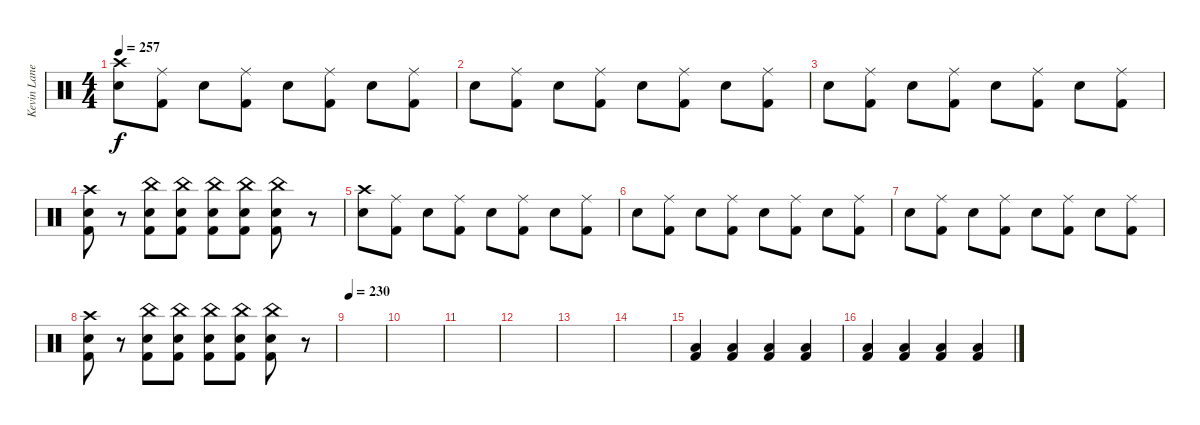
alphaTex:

\track ("Kevin Lane" "Kevin Lane") {instrument percussion}
\staff {score}
\articulation defaults
\ts (4 4)
\tempo 257
\clef neutral
\ks c
("Crash high (hit)" "Electric Snare (hit)").8{dy f} ("Ride (middle)" "Kick (hit) 2").8 "Electric Snare (hit)".8 ("Ride (middle)" "Kick (hit) 2").8 "Electric Snare (hit)".8 ("Ride (middle)" "Kick (hit) 2").8 "Electric Snare (hit)".8 ("Ride (middle)" "Kick (hit) 2").8 |
"Electric Snare (hit)".8 ("Ride (middle)" "Kick (hit) 2").8 "Electric Snare (hit)".8 ("Ride (middle)" "Kick (hit) 2").8 "Electric Snare (hit)".8 ("Ride (middle)" "Kick (hit) 2").8 "Electric Snare (hit)".8 ("Ride (middle)" "Kick (hit) 2").8 |
"Electric Snare (hit)".8 ("Ride (middle)" "Kick (hit) 2").8 "Electric Snare (hit)".8 ("Ride (middle)" "Kick (hit) 2").8 "Electric Snare (hit)".8 ("Ride (middle)" "Kick (hit) 2").8 "Electric Snare (hit)".8 ("Ride (middle)" "Kick (hit) 2").8 |
("Crash high (hit)" "Electric Snare (hit)" "Kick (hit) 2").8 r.8 ("China (hit)" "Electric Snare (hit)" "Kick (hit) 2").8 ("China (hit)" "Electric Snare (hit)" "Kick (hit) 2").8 ("China (hit)" "Electric Snare (hit)" "Kick (hit) 2").8 ("China (hit)" "Electric Snare (hit)" "Kick (hit) 2").8 ("China (hit)" "Electric Snare (hit)" "Kick (hit) 2").8 r.8 |
("Crash high (hit)" "Electric Snare (hit)").8 ("Ride (middle)" "Kick (hit) 2").8 "Electric Snare (hit)".8 ("Ride (middle)" "Kick (hit) 2").8 "Electric Snare (hit)".8 ("Ride (middle)" "Kick (hit) 2").8 "Electric Snare (hit)".8 ("Ride (middle)" "Kick (hit) 2").8 |
"Electric Snare (hit)".8 ("Ride (middle)" "Kick (hit) 2").8 "Electric Snare (hit)".8 ("Ride (middle)" "Kick (hit) 2").8 "Electric Snare (hit)".8 ("Ride (middle)" "Kick (hit) 2").8 "Electric Snare (hit)".8 ("Ride (middle)" "Kick (hit) 2").8 |
"Electric Snare (hit)".8 ("Ride (middle)" "Kick (hit) 2").8 "Electric Snare (hit)".8 ("Ride (middle)" "Kick (hit) 2").8 "Electric Snare (hit)".8 ("Ride (middle)" "Kick (hit) 2").8 "Electric Snare (hit)".8 ("Ride (middle)" "Kick (hit) 2").8 |
("Crash high (hit)" "Electric Snare (hit)" "Kick (hit) 2").8 r.8 ("China (hit)" "Electric Snare (hit)" "Kick (hit) 2").8 ("China (hit)" "Electric Snare (hit)" "Kick (hit) 2").8 ("China (hit)" "Electric Snare (hit)" "Kick (hit) 2").8 ("China (hit)" "Electric Snare (hit)" "Kick (hit) 2").8 ("China (hit)" "Electric Snare (hit)" "Kick (hit) 2").8 r.8 |
\tempo 230
|
|
|
|
|
|
("Low Floor Tom (hit)" "Kick (hit) 2").4{volume 13} ("Low Floor Tom (hit)" "Kick (hit) 2").4 ("Low Floor Tom (hit)" "Kick (hit) 2").4 ("Low Floor Tom (hit)" "Kick (hit) 2").4 |
("Low Floor Tom (hit)" "Kick (hit) 2").4 ("Low Floor Tom (hit)" "Kick (hit) 2").4 ("Low Floor Tom (hit)" "Kick (hit) 2").4 ("Low Floor Tom (hit)" "Kick (hit) 2").4
